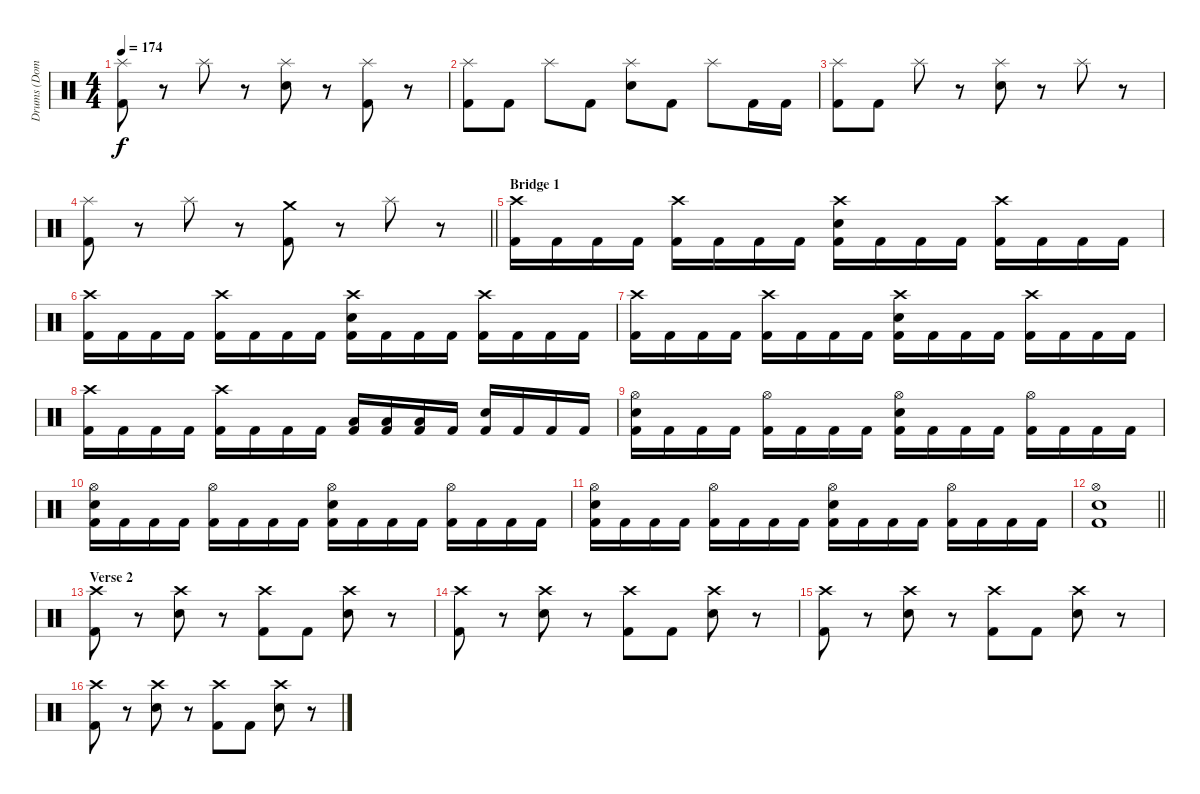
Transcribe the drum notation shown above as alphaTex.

\track ("Drums (Dominik)" "Drums (Dom") {instrument percussion}
\staff {score}
\articulation defaults
\ts (4 4)
\tempo 174
\clef neutral
\ks c
("Splash (hit)" "Kick (hit) 2").8{dy f} r.8 "Splash (hit)".8 r.8 ("Splash (hit)" "Electric Snare (hit)").8 r.8 ("Splash (hit)" "Kick (hit) 2").8 r.8 |
("Splash (hit)" "Kick (hit) 2").8 "Kick (hit) 2".8 "Splash (hit)".8 "Kick (hit) 2".8 ("Splash (hit)" "Electric Snare (hit)").8 "Kick (hit) 2".8 "Splash (hit)".8 "Kick (hit) 2".16 "Kick (hit) 2".16 |
("Splash (hit)" "Kick (hit) 2").8 "Kick (hit) 2".8 "Splash (hit)".8 r.8 ("Splash (hit)" "Electric Snare (hit)").8 r.8 "Splash (hit)".8 r.8 |
\barLineRight lightlight
("Splash (hit)" "Kick (hit) 2").8 r.8 "Splash (hit)".8 r.8 ("Crash medium (hit)" "Kick (hit) 2").8 r.8 "Splash (hit)".8 r.8 |
\section ("" "Bridge 1")
("Crash high (hit)" "Kick (hit) 2").16 "Kick (hit) 2".16 "Kick (hit) 2".16 "Kick (hit) 2".16 ("Crash high (hit)" "Kick (hit) 2").16 "Kick (hit) 2".16 "Kick (hit) 2".16 "Kick (hit) 2".16 ("Crash high (hit)" "Electric Snare (hit)" "Kick (hit) 2").16 "Kick (hit) 2".16 "Kick (hit) 2".16 "Kick (hit) 2".16 ("Crash high (hit)" "Kick (hit) 2").16 "Kick (hit) 2".16 "Kick (hit) 2".16 "Kick (hit) 2".16 |
("Crash high (hit)" "Kick (hit) 2").16 "Kick (hit) 2".16 "Kick (hit) 2".16 "Kick (hit) 2".16 ("Crash high (hit)" "Kick (hit) 2").16 "Kick (hit) 2".16 "Kick (hit) 2".16 "Kick (hit) 2".16 ("Crash high (hit)" "Electric Snare (hit)" "Kick (hit) 2").16 "Kick (hit) 2".16 "Kick (hit) 2".16 "Kick (hit) 2".16 ("Crash high (hit)" "Kick (hit) 2").16 "Kick (hit) 2".16 "Kick (hit) 2".16 "Kick (hit) 2".16 |
("Crash high (hit)" "Kick (hit) 2").16 "Kick (hit) 2".16 "Kick (hit) 2".16 "Kick (hit) 2".16 ("Crash high (hit)" "Kick (hit) 2").16 "Kick (hit) 2".16 "Kick (hit) 2".16 "Kick (hit) 2".16 ("Crash high (hit)" "Electric Snare (hit)" "Kick (hit) 2").16 "Kick (hit) 2".16 "Kick (hit) 2".16 "Kick (hit) 2".16 ("Crash high (hit)" "Kick (hit) 2").16 "Kick (hit) 2".16 "Kick (hit) 2".16 "Kick (hit) 2".16 |
("Crash high (hit)" "Kick (hit) 2").16 "Kick (hit) 2".16 "Kick (hit) 2".16 "Kick (hit) 2".16 ("Crash high (hit)" "Kick (hit) 2").16 "Kick (hit) 2".16 "Kick (hit) 2".16 "Kick (hit) 2".16 ("Low Tom (hit)" "Kick (hit) 2").16 ("Low Tom (hit)" "Kick (hit) 2").16 ("Low Tom (hit)" "Kick (hit) 2").16 "Kick (hit) 2".16 ("Electric Snare (hit)" "Kick (hit) 2").16 "Kick (hit) 2".16 "Kick (hit) 2".16 "Kick (hit) 2".16 |
("Hi-Hat (open)" "Electric Snare (hit)" "Kick (hit) 2").16 "Kick (hit) 2".16 "Kick (hit) 2".16 "Kick (hit) 2".16 ("Hi-Hat (open)" "Kick (hit) 2").16 "Kick (hit) 2".16 "Kick (hit) 2".16 "Kick (hit) 2".16 ("Hi-Hat (open)" "Electric Snare (hit)" "Kick (hit) 2").16 "Kick (hit) 2".16 "Kick (hit) 2".16 "Kick (hit) 2".16 ("Hi-Hat (open)" "Kick (hit) 2").16 "Kick (hit) 2".16 "Kick (hit) 2".16 "Kick (hit) 2".16 |
("Hi-Hat (open)" "Electric Snare (hit)" "Kick (hit) 2").16 "Kick (hit) 2".16 "Kick (hit) 2".16 "Kick (hit) 2".16 ("Hi-Hat (open)" "Kick (hit) 2").16 "Kick (hit) 2".16 "Kick (hit) 2".16 "Kick (hit) 2".16 ("Hi-Hat (open)" "Electric Snare (hit)" "Kick (hit) 2").16 "Kick (hit) 2".16 "Kick (hit) 2".16 "Kick (hit) 2".16 ("Hi-Hat (open)" "Kick (hit) 2").16 "Kick (hit) 2".16 "Kick (hit) 2".16 "Kick (hit) 2".16 |
("Hi-Hat (open)" "Electric Snare (hit)" "Kick (hit) 2").16 "Kick (hit) 2".16 "Kick (hit) 2".16 "Kick (hit) 2".16 ("Hi-Hat (open)" "Kick (hit) 2").16 "Kick (hit) 2".16 "Kick (hit) 2".16 "Kick (hit) 2".16 ("Hi-Hat (open)" "Electric Snare (hit)" "Kick (hit) 2").16 "Kick (hit) 2".16 "Kick (hit) 2".16 "Kick (hit) 2".16 ("Hi-Hat (open)" "Kick (hit) 2").16 "Kick (hit) 2".16 "Kick (hit) 2".16 "Kick (hit) 2".16 |
\barLineRight lightlight
("Hi-Hat (open)" "Electric Snare (hit)" "Kick (hit) 2").1 |
\section ("" "Verse 2")
("Crash high (hit)" "Kick (hit) 2").8 r.8 ("Crash high (hit)" "Electric Snare (hit)").8 r.8 ("Crash high (hit)" "Kick (hit) 2").8 "Kick (hit) 2".8 ("Crash high (hit)" "Electric Snare (hit)").8 r.8 |
("Crash high (hit)" "Kick (hit) 2").8 r.8 ("Crash high (hit)" "Electric Snare (hit)").8 r.8 ("Crash high (hit)" "Kick (hit) 2").8 "Kick (hit) 2".8 ("Crash high (hit)" "Electric Snare (hit)").8 r.8 |
("Crash high (hit)" "Kick (hit) 2").8 r.8 ("Crash high (hit)" "Electric Snare (hit)").8 r.8 ("Crash high (hit)" "Kick (hit) 2").8 "Kick (hit) 2".8 ("Crash high (hit)" "Electric Snare (hit)").8 r.8 |
("Crash high (hit)" "Kick (hit) 2").8 r.8 ("Crash high (hit)" "Electric Snare (hit)").8 r.8 ("Crash high (hit)" "Kick (hit) 2").8 "Kick (hit) 2".8 ("Crash high (hit)" "Electric Snare (hit)").8 r.8
